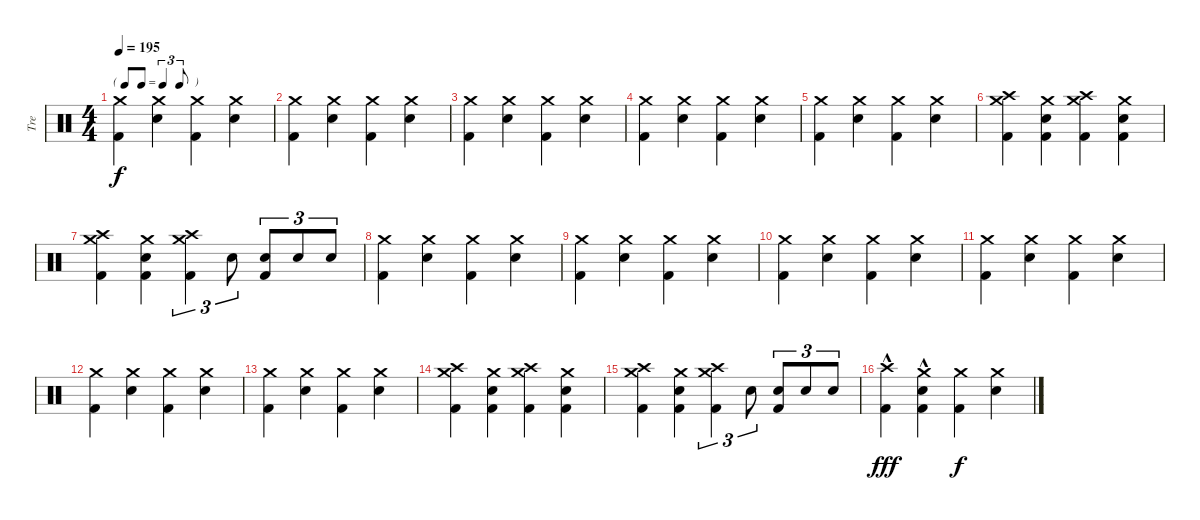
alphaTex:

\track ("Tre" "Tre") {instrument percussion}
\staff {score}
\articulation defaults
\ts (4 4)
\tf triplet8th
\tempo 195
\clef neutral
\ks c
("Crash medium (hit)" "Kick (hit) 2").4{dy f} ("Crash medium (hit)" "Snare (hit) 2").4 ("Crash medium (hit)" "Kick (hit) 2").4 ("Crash medium (hit)" "Snare (hit) 2").4 |
("Crash medium (hit)" "Kick (hit) 2").4 ("Crash medium (hit)" "Snare (hit) 2").4 ("Crash medium (hit)" "Kick (hit) 2").4 ("Crash medium (hit)" "Snare (hit) 2").4 |
("Crash medium (hit)" "Kick (hit) 2").4 ("Crash medium (hit)" "Snare (hit) 2").4 ("Crash medium (hit)" "Kick (hit) 2").4 ("Crash medium (hit)" "Snare (hit) 2").4 |
("Crash medium (hit)" "Kick (hit) 2").4 ("Crash medium (hit)" "Snare (hit) 2").4 ("Crash medium (hit)" "Kick (hit) 2").4 ("Crash medium (hit)" "Snare (hit) 2").4 |
("Crash medium (hit)" "Kick (hit) 2").4 ("Crash medium (hit)" "Snare (hit) 2").4 ("Crash medium (hit)" "Kick (hit) 2").4 ("Crash medium (hit)" "Snare (hit) 2").4 |
("Crash medium (hit)" "Crash high (hit)" "Kick (hit) 2").4 ("Crash medium (hit)" "Snare (hit) 2" "Kick (hit) 2").4 ("Crash medium (hit)" "Crash high (hit)" "Kick (hit) 2").4 ("Crash medium (hit)" "Snare (hit) 2" "Kick (hit) 2").4 |
("Crash medium (hit)" "Crash high (hit)" "Kick (hit) 2").4 ("Crash medium (hit)" "Snare (hit) 2" "Kick (hit) 2").4 ("Crash medium (hit)" "Crash high (hit)" "Kick (hit) 2").4{tu (3 2)} "Snare (hit) 2".8{tu (3 2)} ("Snare (hit) 2" "Kick (hit) 2").8{tu (3 2)} "Snare (hit) 2".8{tu (3 2)} "Snare (hit) 2".8{tu (3 2)} |
("Crash medium (hit)" "Kick (hit) 2").4 ("Crash medium (hit)" "Snare (hit) 2").4 ("Crash medium (hit)" "Kick (hit) 2").4 ("Crash medium (hit)" "Snare (hit) 2").4 |
("Crash medium (hit)" "Kick (hit) 2").4 ("Crash medium (hit)" "Snare (hit) 2").4 ("Crash medium (hit)" "Kick (hit) 2").4 ("Crash medium (hit)" "Snare (hit) 2").4 |
("Crash medium (hit)" "Kick (hit) 2").4 ("Crash medium (hit)" "Snare (hit) 2").4 ("Crash medium (hit)" "Kick (hit) 2").4 ("Crash medium (hit)" "Snare (hit) 2").4 |
("Crash medium (hit)" "Kick (hit) 2").4 ("Crash medium (hit)" "Snare (hit) 2").4 ("Crash medium (hit)" "Kick (hit) 2").4 ("Crash medium (hit)" "Snare (hit) 2").4 |
("Crash medium (hit)" "Kick (hit) 2").4 ("Crash medium (hit)" "Snare (hit) 2").4 ("Crash medium (hit)" "Kick (hit) 2").4 ("Crash medium (hit)" "Snare (hit) 2").4 |
("Crash medium (hit)" "Kick (hit) 2").4 ("Crash medium (hit)" "Snare (hit) 2").4 ("Crash medium (hit)" "Kick (hit) 2").4 ("Crash medium (hit)" "Snare (hit) 2").4 |
("Crash medium (hit)" "Crash high (hit)" "Kick (hit) 2").4 ("Crash medium (hit)" "Snare (hit) 2" "Kick (hit) 2").4 ("Crash medium (hit)" "Crash high (hit)" "Kick (hit) 2").4 ("Crash medium (hit)" "Snare (hit) 2" "Kick (hit) 2").4 |
("Crash medium (hit)" "Crash high (hit)" "Kick (hit) 2").4 ("Crash medium (hit)" "Snare (hit) 2" "Kick (hit) 2").4 ("Crash medium (hit)" "Crash high (hit)" "Kick (hit) 2").4{tu (3 2)} "Snare (hit) 2".8{tu (3 2)} ("Snare (hit) 2" "Kick (hit) 2").8{tu (3 2)} "Snare (hit) 2".8{tu (3 2)} "Snare (hit) 2".8{tu (3 2)} |
("Crash high (hit)"{hac} "Kick (hit) 2"{hac}).4{dy fff} ("Crash medium (hit)"{hac} "Snare (hit) 2"{hac} "Kick (hit) 2"{hac}).4 ("Crash medium (hit)" "Kick (hit) 2").4{dy f} ("Crash medium (hit)" "Snare (hit) 2").4
